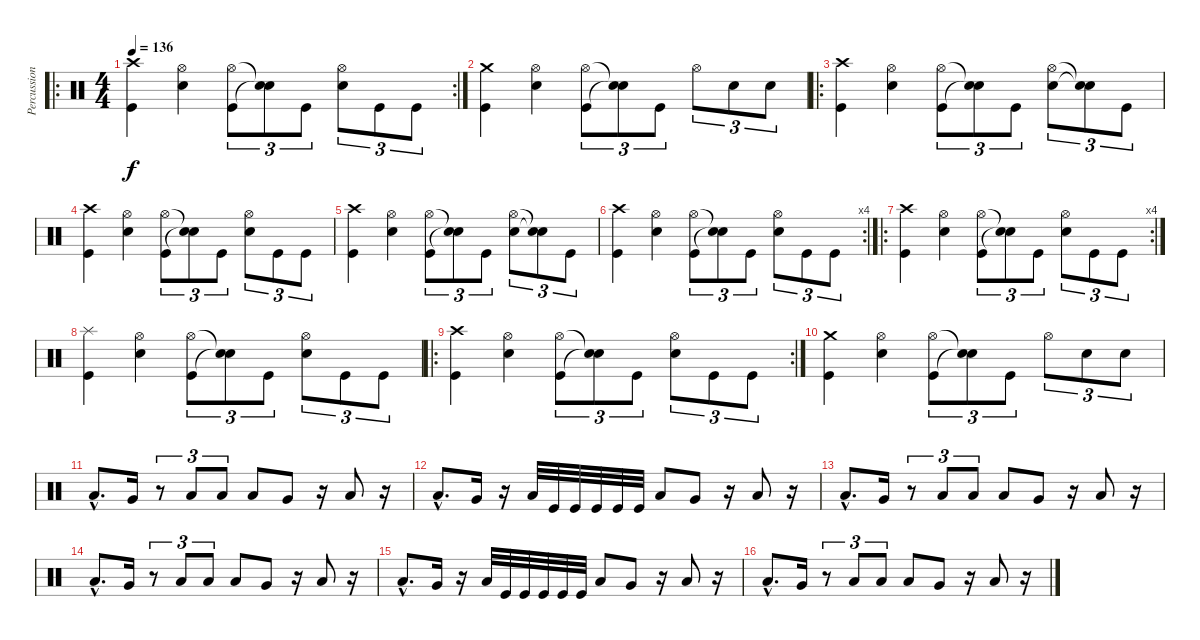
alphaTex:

\track ("Percussions" "Percussion") {instrument percussion}
\staff {score}
\articulation defaults
\ro
\rc 2
\ts (4 4)
\tempo 136
\clef neutral
\ks c
("Crash high (hit)" "Kick (hit)").4{dy f} ("Hi-Hat (open)" "Snare (hit) 2").4 ("Hi-Hat (open)" "Kick (hit)").8{tu (3 2)} ("Snare (hit)"{t} "Snare (hit)"{t}).8{tu (3 2)} "Kick (hit)".8{tu (3 2)} ("Hi-Hat (open)" "Snare (hit) 2").8{tu (3 2)} "Kick (hit)".8{tu (3 2)} "Kick (hit)".8{tu (3 2)} |
("Crash medium (hit)" "Kick (hit)").4 ("Hi-Hat (open)" "Snare (hit) 2").4 ("Hi-Hat (open)" "Kick (hit)").8{tu (3 2)} ("Snare (hit)"{t} "Snare (hit)"{t}).8{tu (3 2)} "Kick (hit)".8{tu (3 2)} "Hi-Hat (open)".8{tu (3 2)} "Snare (hit) 2".8{tu (3 2)} "Snare (hit) 2".8{tu (3 2)} |
\ro
("Crash high (hit)" "Kick (hit)").4 ("Hi-Hat (open)" "Snare (hit) 2").4 ("Hi-Hat (open)" "Kick (hit)").8{tu (3 2)} ("Snare (hit)"{t} "Snare (hit)"{t}).8{tu (3 2)} "Kick (hit)".8{tu (3 2)} ("Hi-Hat (open)" "Snare (hit) 2").8{tu (3 2)} ("Snare (hit)"{t} "Snare (hit)"{t}).8{tu (3 2)} "Kick (hit)".8{tu (3 2)} |
("Crash high (hit)" "Kick (hit)").4 ("Hi-Hat (open)" "Snare (hit) 2").4 ("Hi-Hat (open)" "Kick (hit)").8{tu (3 2)} ("Snare (hit)"{t} "Snare (hit)"{t}).8{tu (3 2)} "Kick (hit)".8{tu (3 2)} ("Hi-Hat (open)" "Snare (hit) 2").8{tu (3 2)} "Kick (hit)".8{tu (3 2)} "Kick (hit)".8{tu (3 2)} |
("Crash high (hit)" "Kick (hit)").4 ("Hi-Hat (open)" "Snare (hit) 2").4 ("Hi-Hat (open)" "Kick (hit)").8{tu (3 2)} ("Snare (hit)"{t} "Snare (hit)"{t}).8{tu (3 2)} "Kick (hit)".8{tu (3 2)} ("Hi-Hat (open)" "Snare (hit) 2").8{tu (3 2)} ("Snare (hit)"{t} "Snare (hit)"{t}).8{tu (3 2)} "Kick (hit)".8{tu (3 2)} |
\rc 4
("Crash high (hit)" "Kick (hit)").4 ("Hi-Hat (open)" "Snare (hit) 2").4 ("Hi-Hat (open)" "Kick (hit)").8{tu (3 2)} ("Snare (hit)"{t} "Snare (hit)"{t}).8{tu (3 2)} "Kick (hit)".8{tu (3 2)} ("Hi-Hat (open)" "Snare (hit) 2").8{tu (3 2)} "Kick (hit)".8{tu (3 2)} "Kick (hit)".8{tu (3 2)} |
\ro
\rc 4
("Crash high (hit)" "Kick (hit)").4 ("Hi-Hat (open)" "Snare (hit) 2").4 ("Hi-Hat (open)" "Kick (hit)").8{tu (3 2)} ("Snare (hit)"{t} "Snare (hit)"{t}).8{tu (3 2)} "Kick (hit)".8{tu (3 2)} ("Hi-Hat (open)" "Snare (hit) 2").8{tu (3 2)} "Kick (hit)".8{tu (3 2)} "Kick (hit)".8{tu (3 2)} |
("Splash (hit)" "Kick (hit)").4 ("Hi-Hat (open)" "Snare (hit) 2").4 ("Hi-Hat (open)" "Kick (hit)").8{tu (3 2)} ("Snare (hit)"{t} "Snare (hit)"{t}).8{tu (3 2)} "Kick (hit)".8{tu (3 2)} ("Hi-Hat (open)" "Snare (hit) 2").8{tu (3 2)} "Kick (hit)".8{tu (3 2)} "Kick (hit)".8{tu (3 2)} |
\ro
\rc 2
("Crash high (hit)" "Kick (hit)").4 ("Hi-Hat (open)" "Snare (hit) 2").4 ("Hi-Hat (open)" "Kick (hit)").8{tu (3 2)} ("Snare (hit)"{t} "Snare (hit)"{t}).8{tu (3 2)} "Kick (hit)".8{tu (3 2)} ("Hi-Hat (open)" "Snare (hit) 2").8{tu (3 2)} "Kick (hit)".8{tu (3 2)} "Kick (hit)".8{tu (3 2)} |
("Crash medium (hit)" "Kick (hit)").4 ("Hi-Hat (open)" "Snare (hit) 2").4 ("Hi-Hat (open)" "Kick (hit)").8{tu (3 2)} ("Snare (hit)"{t} "Snare (hit)"{t}).8{tu (3 2)} "Kick (hit)".8{tu (3 2)} "Hi-Hat (open)".8{tu (3 2)} "Snare (hit) 2".8{tu (3 2)} "Snare (hit) 2".8{tu (3 2)} |
"Low Tom (hit)"{hac}.8{d} "Very Low Tom (hit)".16 r.8{tu (3 2)} "Low Floor Tom (hit)".8{tu (3 2)} "Low Floor Tom (hit)".8{tu (3 2)} "Low Tom (hit)".8 "Very Low Tom (hit)".8 r.16 "Low Floor Tom (hit)".8 r.16 |
"Low Tom (hit)"{hac}.8{d} "Very Low Tom (hit)".16 r.16 "Low Floor Tom (hit)".32 "Kick (hit)".32 "Kick (hit)".32 "Kick (hit)".32 "Kick (hit)".32 "Kick (hit)".32 "Low Tom (hit)".8 "Very Low Tom (hit)".8 r.16 "Low Floor Tom (hit)".8 r.16 |
"Low Tom (hit)"{hac}.8{d} "Very Low Tom (hit)".16 r.8{tu (3 2)} "Low Floor Tom (hit)".8{tu (3 2)} "Low Floor Tom (hit)".8{tu (3 2)} "Low Tom (hit)".8 "Very Low Tom (hit)".8 r.16 "Low Floor Tom (hit)".8 r.16 |
"Low Tom (hit)"{hac}.8{d} "Very Low Tom (hit)".16 r.8{tu (3 2)} "Low Floor Tom (hit)".8{tu (3 2)} "Low Floor Tom (hit)".8{tu (3 2)} "Low Tom (hit)".8 "Very Low Tom (hit)".8 r.16 "Low Floor Tom (hit)".8 r.16 |
"Low Tom (hit)"{hac}.8{d} "Very Low Tom (hit)".16 r.16 "Low Floor Tom (hit)".32 "Kick (hit)".32 "Kick (hit)".32 "Kick (hit)".32 "Kick (hit)".32 "Kick (hit)".32 "Low Tom (hit)".8 "Very Low Tom (hit)".8 r.16 "Low Floor Tom (hit)".8 r.16 |
"Low Tom (hit)"{hac}.8{d} "Very Low Tom (hit)".16 r.8{tu (3 2)} "Low Floor Tom (hit)".8{tu (3 2)} "Low Floor Tom (hit)".8{tu (3 2)} "Low Tom (hit)".8 "Very Low Tom (hit)".8 r.16 "Low Floor Tom (hit)".8 r.16
